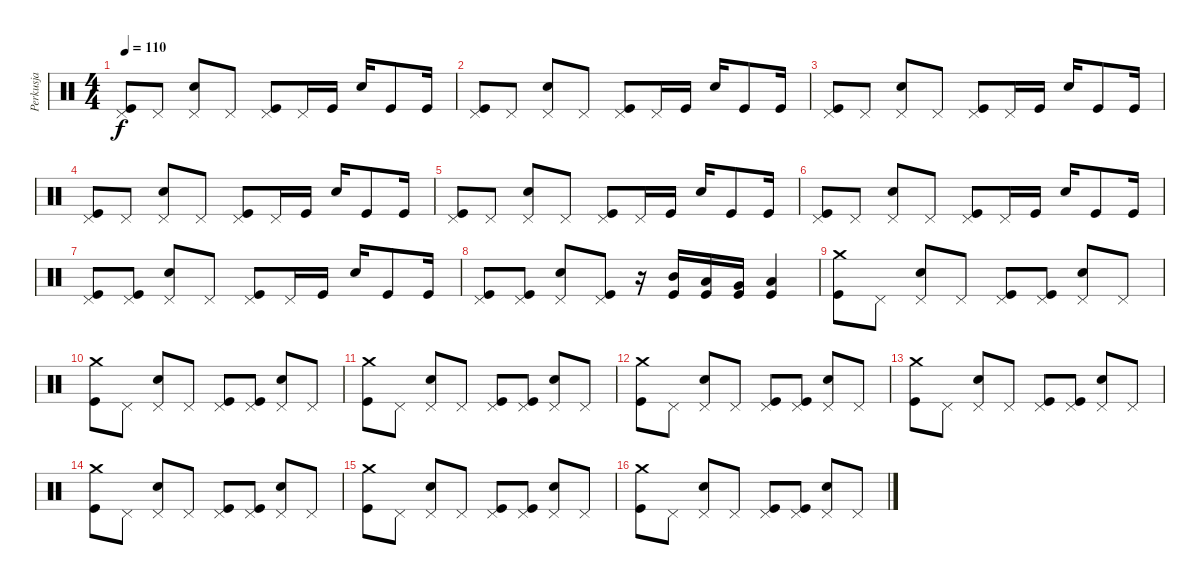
\track ("Perkusja" "Perkusja") {instrument percussion}
\staff {score}
\articulation defaults
\ts (4 4)
\tempo 110
\clef neutral
\ks c
("Pedal Hi-Hat (hit)" "Kick (hit)").8{dy f} "Pedal Hi-Hat (hit)".8 ("Pedal Hi-Hat (hit)" "Snare (hit) 2").8 "Pedal Hi-Hat (hit)".8 ("Pedal Hi-Hat (hit)" "Kick (hit)").8 "Pedal Hi-Hat (hit)".16 "Kick (hit)".16 "Snare (hit) 2".16 "Kick (hit)".8 "Kick (hit)".16 |
("Pedal Hi-Hat (hit)" "Kick (hit)").8 "Pedal Hi-Hat (hit)".8 ("Pedal Hi-Hat (hit)" "Snare (hit) 2").8 "Pedal Hi-Hat (hit)".8 ("Pedal Hi-Hat (hit)" "Kick (hit)").8 "Pedal Hi-Hat (hit)".16 "Kick (hit)".16 "Snare (hit) 2".16 "Kick (hit)".8 "Kick (hit)".16 |
("Pedal Hi-Hat (hit)" "Kick (hit)").8 "Pedal Hi-Hat (hit)".8 ("Pedal Hi-Hat (hit)" "Snare (hit) 2").8 "Pedal Hi-Hat (hit)".8 ("Pedal Hi-Hat (hit)" "Kick (hit)").8 "Pedal Hi-Hat (hit)".16 "Kick (hit)".16 "Snare (hit) 2".16 "Kick (hit)".8 "Kick (hit)".16 |
("Pedal Hi-Hat (hit)" "Kick (hit)").8 "Pedal Hi-Hat (hit)".8 ("Pedal Hi-Hat (hit)" "Snare (hit) 2").8 "Pedal Hi-Hat (hit)".8 ("Pedal Hi-Hat (hit)" "Kick (hit)").8 "Pedal Hi-Hat (hit)".16 "Kick (hit)".16 "Snare (hit) 2".16 "Kick (hit)".8 "Kick (hit)".16 |
("Pedal Hi-Hat (hit)" "Kick (hit)").8 "Pedal Hi-Hat (hit)".8 ("Pedal Hi-Hat (hit)" "Snare (hit) 2").8 "Pedal Hi-Hat (hit)".8 ("Pedal Hi-Hat (hit)" "Kick (hit)").8 "Pedal Hi-Hat (hit)".16 "Kick (hit)".16 "Snare (hit) 2".16 "Kick (hit)".8 "Kick (hit)".16 |
("Pedal Hi-Hat (hit)" "Kick (hit)").8 "Pedal Hi-Hat (hit)".8 ("Pedal Hi-Hat (hit)" "Snare (hit) 2").8 "Pedal Hi-Hat (hit)".8 ("Pedal Hi-Hat (hit)" "Kick (hit)").8 "Pedal Hi-Hat (hit)".16 "Kick (hit)".16 "Snare (hit) 2".16 "Kick (hit)".8 "Kick (hit)".16 |
("Pedal Hi-Hat (hit)" "Kick (hit)").8 ("Pedal Hi-Hat (hit)" "Kick (hit)").8 ("Pedal Hi-Hat (hit)" "Snare (hit) 2").8 "Pedal Hi-Hat (hit)".8 ("Pedal Hi-Hat (hit)" "Kick (hit)").8 "Pedal Hi-Hat (hit)".16 "Kick (hit)".16 "Snare (hit) 2".16 "Kick (hit)".8 "Kick (hit)".16 |
("Pedal Hi-Hat (hit)" "Kick (hit)").8 ("Pedal Hi-Hat (hit)" "Kick (hit)").8 ("Pedal Hi-Hat (hit)" "Snare (hit) 2").8 ("Pedal Hi-Hat (hit)" "Kick (hit)").8 r.16 ("Mid Tom (hit)" "Kick (hit)").16 ("Low Tom (hit)" "Kick (hit)").16 ("Very Low Tom (hit)" "Kick (hit)").16 ("Low Floor Tom (hit)" "Kick (hit)").4 |
("Crash medium (hit)" "Kick (hit)").8 "Pedal Hi-Hat (hit)".8 ("Pedal Hi-Hat (hit)" "Snare (hit) 2").8 "Pedal Hi-Hat (hit)".8 ("Pedal Hi-Hat (hit)" "Kick (hit)").8 ("Pedal Hi-Hat (hit)" "Kick (hit)").8 ("Pedal Hi-Hat (hit)" "Snare (hit) 2").8 "Pedal Hi-Hat (hit)".8 |
("Crash medium (hit)" "Kick (hit)").8 "Pedal Hi-Hat (hit)".8 ("Pedal Hi-Hat (hit)" "Snare (hit) 2").8 "Pedal Hi-Hat (hit)".8 ("Pedal Hi-Hat (hit)" "Kick (hit)").8 ("Pedal Hi-Hat (hit)" "Kick (hit)").8 ("Pedal Hi-Hat (hit)" "Snare (hit) 2").8 "Pedal Hi-Hat (hit)".8 |
("Crash medium (hit)" "Kick (hit)").8 "Pedal Hi-Hat (hit)".8 ("Pedal Hi-Hat (hit)" "Snare (hit) 2").8 "Pedal Hi-Hat (hit)".8 ("Pedal Hi-Hat (hit)" "Kick (hit)").8 ("Pedal Hi-Hat (hit)" "Kick (hit)").8 ("Pedal Hi-Hat (hit)" "Snare (hit) 2").8 "Pedal Hi-Hat (hit)".8 |
("Crash medium (hit)" "Kick (hit)").8 "Pedal Hi-Hat (hit)".8 ("Pedal Hi-Hat (hit)" "Snare (hit) 2").8 "Pedal Hi-Hat (hit)".8 ("Pedal Hi-Hat (hit)" "Kick (hit)").8 ("Pedal Hi-Hat (hit)" "Kick (hit)").8 ("Pedal Hi-Hat (hit)" "Snare (hit) 2").8 "Pedal Hi-Hat (hit)".8 |
("Crash medium (hit)" "Kick (hit)").8 "Pedal Hi-Hat (hit)".8 ("Pedal Hi-Hat (hit)" "Snare (hit) 2").8 "Pedal Hi-Hat (hit)".8 ("Pedal Hi-Hat (hit)" "Kick (hit)").8 ("Pedal Hi-Hat (hit)" "Kick (hit)").8 ("Pedal Hi-Hat (hit)" "Snare (hit) 2").8 "Pedal Hi-Hat (hit)".8 |
("Crash medium (hit)" "Kick (hit)").8 "Pedal Hi-Hat (hit)".8 ("Pedal Hi-Hat (hit)" "Snare (hit) 2").8 "Pedal Hi-Hat (hit)".8 ("Pedal Hi-Hat (hit)" "Kick (hit)").8 ("Pedal Hi-Hat (hit)" "Kick (hit)").8 ("Pedal Hi-Hat (hit)" "Snare (hit) 2").8 "Pedal Hi-Hat (hit)".8 |
("Crash medium (hit)" "Kick (hit)").8 "Pedal Hi-Hat (hit)".8 ("Pedal Hi-Hat (hit)" "Snare (hit) 2").8 "Pedal Hi-Hat (hit)".8 ("Pedal Hi-Hat (hit)" "Kick (hit)").8 ("Pedal Hi-Hat (hit)" "Kick (hit)").8 ("Pedal Hi-Hat (hit)" "Snare (hit) 2").8 "Pedal Hi-Hat (hit)".8 |
("Crash medium (hit)" "Kick (hit)").8 "Pedal Hi-Hat (hit)".8 ("Pedal Hi-Hat (hit)" "Snare (hit) 2").8 "Pedal Hi-Hat (hit)".8 ("Pedal Hi-Hat (hit)" "Kick (hit)").8 ("Pedal Hi-Hat (hit)" "Kick (hit)").8 ("Pedal Hi-Hat (hit)" "Snare (hit) 2").8 "Pedal Hi-Hat (hit)".8
